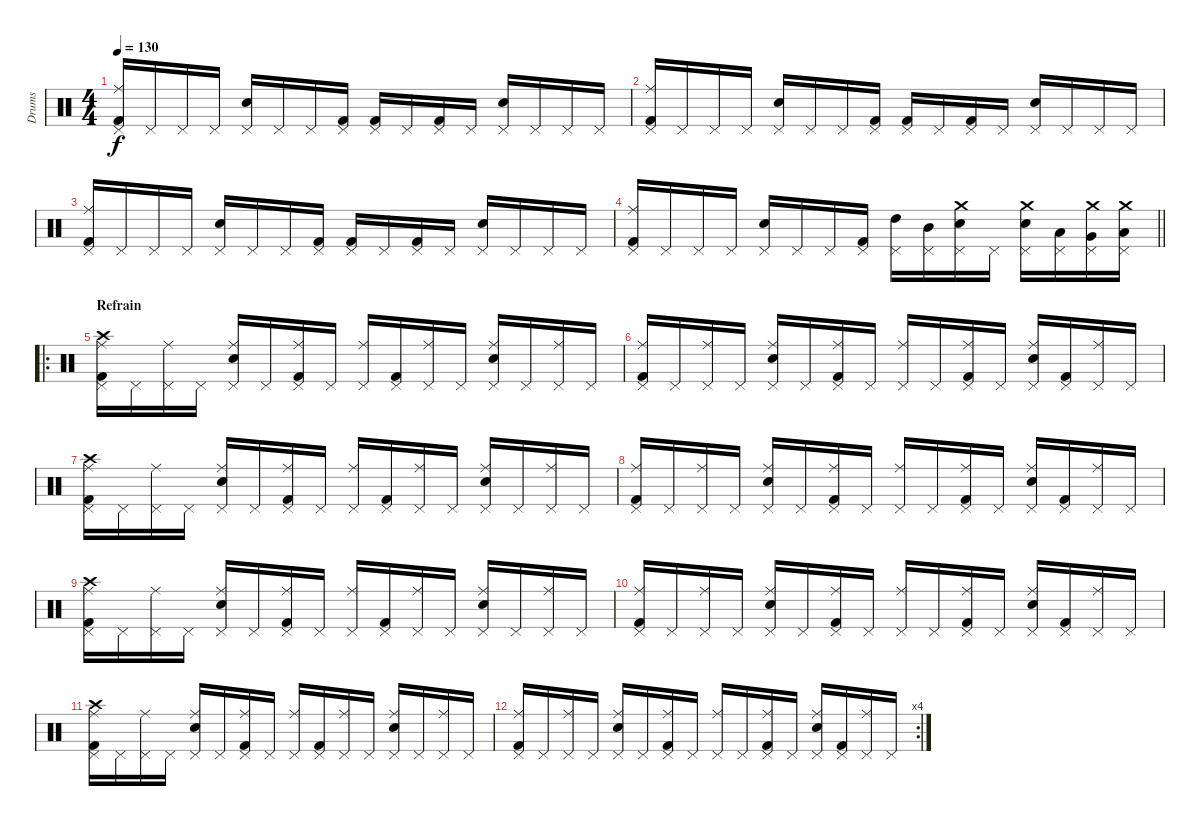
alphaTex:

\track ("Drums" "Drums") {instrument percussion}
\staff {score}
\articulation defaults
\ts (4 4)
\tempo 130
\clef neutral
\ks c
("Ride (middle)" "Pedal Hi-Hat (hit)" "Kick (hit) 2").16{dy f} "Pedal Hi-Hat (hit)".16 "Pedal Hi-Hat (hit)".16 "Pedal Hi-Hat (hit)".16 ("Pedal Hi-Hat (hit)" "Snare (hit) 2").16 "Pedal Hi-Hat (hit)".16 "Pedal Hi-Hat (hit)".16 ("Pedal Hi-Hat (hit)" "Kick (hit) 2").16 ("Pedal Hi-Hat (hit)" "Kick (hit) 2").16 "Pedal Hi-Hat (hit)".16 ("Pedal Hi-Hat (hit)" "Kick (hit) 2").16 "Pedal Hi-Hat (hit)".16 ("Pedal Hi-Hat (hit)" "Snare (hit) 2").16 "Pedal Hi-Hat (hit)".16 "Pedal Hi-Hat (hit)".16 "Pedal Hi-Hat (hit)".16 |
("Ride (middle)" "Pedal Hi-Hat (hit)" "Kick (hit) 2").16 "Pedal Hi-Hat (hit)".16 "Pedal Hi-Hat (hit)".16 "Pedal Hi-Hat (hit)".16 ("Pedal Hi-Hat (hit)" "Snare (hit) 2").16 "Pedal Hi-Hat (hit)".16 "Pedal Hi-Hat (hit)".16 ("Pedal Hi-Hat (hit)" "Kick (hit) 2").16 ("Pedal Hi-Hat (hit)" "Kick (hit) 2").16 "Pedal Hi-Hat (hit)".16 ("Pedal Hi-Hat (hit)" "Kick (hit) 2").16 "Pedal Hi-Hat (hit)".16 ("Pedal Hi-Hat (hit)" "Snare (hit) 2").16 "Pedal Hi-Hat (hit)".16 "Pedal Hi-Hat (hit)".16 "Pedal Hi-Hat (hit)".16 |
("Ride (middle)" "Pedal Hi-Hat (hit)" "Kick (hit) 2").16 "Pedal Hi-Hat (hit)".16 "Pedal Hi-Hat (hit)".16 "Pedal Hi-Hat (hit)".16 ("Pedal Hi-Hat (hit)" "Snare (hit) 2").16 "Pedal Hi-Hat (hit)".16 "Pedal Hi-Hat (hit)".16 ("Pedal Hi-Hat (hit)" "Kick (hit) 2").16 ("Pedal Hi-Hat (hit)" "Kick (hit) 2").16 "Pedal Hi-Hat (hit)".16 ("Pedal Hi-Hat (hit)" "Kick (hit) 2").16 "Pedal Hi-Hat (hit)".16 ("Pedal Hi-Hat (hit)" "Snare (hit) 2").16 "Pedal Hi-Hat (hit)".16 "Pedal Hi-Hat (hit)".16 "Pedal Hi-Hat (hit)".16 |
\barLineRight lightlight
("Ride (middle)" "Pedal Hi-Hat (hit)" "Kick (hit) 2").16 "Pedal Hi-Hat (hit)".16 "Pedal Hi-Hat (hit)".16 "Pedal Hi-Hat (hit)".16 ("Pedal Hi-Hat (hit)" "Snare (hit) 2").16 "Pedal Hi-Hat (hit)".16 "Pedal Hi-Hat (hit)".16 ("Pedal Hi-Hat (hit)" "Kick (hit) 2").16 ("Pedal Hi-Hat (hit)" "High Tom (hit)").16 ("Pedal Hi-Hat (hit)" "Mid Tom (hit)").16 ("Crash medium (hit)" "Pedal Hi-Hat (hit)" "Snare (hit) 2").16 "Pedal Hi-Hat (hit)".16 ("Crash medium (hit)" "Pedal Hi-Hat (hit)" "Snare (hit) 2").16 ("Pedal Hi-Hat (hit)" "Low Tom (hit)").16 ("Crash medium (hit)" "Pedal Hi-Hat (hit)" "Very Low Tom (hit)").16 ("Crash medium (hit)" "Pedal Hi-Hat (hit)" "Low Floor Tom (hit)").16 |
\ro
\section ("" "Refrain")
("Crash high (hit)" "Pedal Hi-Hat (hit)" "Ride (middle)" "Kick (hit) 2").16 "Pedal Hi-Hat (hit)".16 ("Pedal Hi-Hat (hit)" "Ride (middle)").16 "Pedal Hi-Hat (hit)".16 ("Pedal Hi-Hat (hit)" "Ride (middle)" "Electric Snare (hit)").16 "Pedal Hi-Hat (hit)".16 ("Pedal Hi-Hat (hit)" "Ride (middle)" "Kick (hit) 2").16 "Pedal Hi-Hat (hit)".16 ("Pedal Hi-Hat (hit)" "Ride (middle)").16 ("Pedal Hi-Hat (hit)" "Kick (hit) 2").16 ("Pedal Hi-Hat (hit)" "Ride (middle)").16 "Pedal Hi-Hat (hit)".16 ("Pedal Hi-Hat (hit)" "Ride (middle)" "Electric Snare (hit)").16 "Pedal Hi-Hat (hit)".16 ("Pedal Hi-Hat (hit)" "Ride (middle)").16 "Pedal Hi-Hat (hit)".16 |
("Ride (middle)" "Pedal Hi-Hat (hit)" "Kick (hit) 2").16 "Pedal Hi-Hat (hit)".16 ("Ride (middle)" "Pedal Hi-Hat (hit)").16 "Pedal Hi-Hat (hit)".16 ("Ride (middle)" "Pedal Hi-Hat (hit)" "Electric Snare (hit)").16 "Pedal Hi-Hat (hit)".16 ("Ride (middle)" "Pedal Hi-Hat (hit)" "Kick (hit) 2").16 "Pedal Hi-Hat (hit)".16 ("Ride (middle)" "Pedal Hi-Hat (hit)").16 "Pedal Hi-Hat (hit)".16 ("Ride (middle)" "Pedal Hi-Hat (hit)" "Kick (hit) 2").16 "Pedal Hi-Hat (hit)".16 ("Ride (middle)" "Pedal Hi-Hat (hit)" "Electric Snare (hit)").16 ("Pedal Hi-Hat (hit)" "Kick (hit) 2").16 ("Ride (middle)" "Pedal Hi-Hat (hit)").16 "Pedal Hi-Hat (hit)".16 |
("Crash high (hit)" "Pedal Hi-Hat (hit)" "Ride (middle)" "Kick (hit) 2").16 "Pedal Hi-Hat (hit)".16 ("Pedal Hi-Hat (hit)" "Ride (middle)").16 "Pedal Hi-Hat (hit)".16 ("Pedal Hi-Hat (hit)" "Ride (middle)" "Electric Snare (hit)").16 "Pedal Hi-Hat (hit)".16 ("Pedal Hi-Hat (hit)" "Ride (middle)" "Kick (hit) 2").16 "Pedal Hi-Hat (hit)".16 ("Pedal Hi-Hat (hit)" "Ride (middle)").16 ("Pedal Hi-Hat (hit)" "Kick (hit) 2").16 ("Pedal Hi-Hat (hit)" "Ride (middle)").16 "Pedal Hi-Hat (hit)".16 ("Pedal Hi-Hat (hit)" "Ride (middle)" "Electric Snare (hit)").16 "Pedal Hi-Hat (hit)".16 ("Pedal Hi-Hat (hit)" "Ride (middle)").16 "Pedal Hi-Hat (hit)".16 |
("Ride (middle)" "Pedal Hi-Hat (hit)" "Kick (hit) 2").16 "Pedal Hi-Hat (hit)".16 ("Ride (middle)" "Pedal Hi-Hat (hit)").16 "Pedal Hi-Hat (hit)".16 ("Ride (middle)" "Pedal Hi-Hat (hit)" "Electric Snare (hit)").16 "Pedal Hi-Hat (hit)".16 ("Ride (middle)" "Pedal Hi-Hat (hit)" "Kick (hit) 2").16 "Pedal Hi-Hat (hit)".16 ("Ride (middle)" "Pedal Hi-Hat (hit)").16 "Pedal Hi-Hat (hit)".16 ("Ride (middle)" "Pedal Hi-Hat (hit)" "Kick (hit) 2").16 "Pedal Hi-Hat (hit)".16 ("Ride (middle)" "Pedal Hi-Hat (hit)" "Electric Snare (hit)").16 ("Pedal Hi-Hat (hit)" "Kick (hit) 2").16 ("Ride (middle)" "Pedal Hi-Hat (hit)").16 "Pedal Hi-Hat (hit)".16 |
("Crash high (hit)" "Pedal Hi-Hat (hit)" "Ride (middle)" "Kick (hit) 2").16 "Pedal Hi-Hat (hit)".16 ("Pedal Hi-Hat (hit)" "Ride (middle)").16 "Pedal Hi-Hat (hit)".16 ("Pedal Hi-Hat (hit)" "Ride (middle)" "Electric Snare (hit)").16 "Pedal Hi-Hat (hit)".16 ("Pedal Hi-Hat (hit)" "Ride (middle)" "Kick (hit) 2").16 "Pedal Hi-Hat (hit)".16 ("Pedal Hi-Hat (hit)" "Ride (middle)").16 ("Pedal Hi-Hat (hit)" "Kick (hit) 2").16 ("Pedal Hi-Hat (hit)" "Ride (middle)").16 "Pedal Hi-Hat (hit)".16 ("Pedal Hi-Hat (hit)" "Ride (middle)" "Electric Snare (hit)").16 "Pedal Hi-Hat (hit)".16 ("Pedal Hi-Hat (hit)" "Ride (middle)").16 "Pedal Hi-Hat (hit)".16 |
("Ride (middle)" "Pedal Hi-Hat (hit)" "Kick (hit) 2").16 "Pedal Hi-Hat (hit)".16 ("Ride (middle)" "Pedal Hi-Hat (hit)").16 "Pedal Hi-Hat (hit)".16 ("Ride (middle)" "Pedal Hi-Hat (hit)" "Electric Snare (hit)").16 "Pedal Hi-Hat (hit)".16 ("Ride (middle)" "Pedal Hi-Hat (hit)" "Kick (hit) 2").16 "Pedal Hi-Hat (hit)".16 ("Ride (middle)" "Pedal Hi-Hat (hit)").16 "Pedal Hi-Hat (hit)".16 ("Ride (middle)" "Pedal Hi-Hat (hit)" "Kick (hit) 2").16 "Pedal Hi-Hat (hit)".16 ("Ride (middle)" "Pedal Hi-Hat (hit)" "Electric Snare (hit)").16 ("Pedal Hi-Hat (hit)" "Kick (hit) 2").16 ("Ride (middle)" "Pedal Hi-Hat (hit)").16 "Pedal Hi-Hat (hit)".16 |
("Crash high (hit)" "Pedal Hi-Hat (hit)" "Ride (middle)" "Kick (hit) 2").16 "Pedal Hi-Hat (hit)".16 ("Pedal Hi-Hat (hit)" "Ride (middle)").16 "Pedal Hi-Hat (hit)".16 ("Pedal Hi-Hat (hit)" "Ride (middle)" "Electric Snare (hit)").16 "Pedal Hi-Hat (hit)".16 ("Pedal Hi-Hat (hit)" "Ride (middle)" "Kick (hit) 2").16 "Pedal Hi-Hat (hit)".16 ("Pedal Hi-Hat (hit)" "Ride (middle)").16 ("Pedal Hi-Hat (hit)" "Kick (hit) 2").16 ("Pedal Hi-Hat (hit)" "Ride (middle)").16 "Pedal Hi-Hat (hit)".16 ("Pedal Hi-Hat (hit)" "Ride (middle)" "Electric Snare (hit)").16 "Pedal Hi-Hat (hit)".16 ("Pedal Hi-Hat (hit)" "Ride (middle)").16 "Pedal Hi-Hat (hit)".16 |
\rc 4
("Ride (middle)" "Pedal Hi-Hat (hit)" "Kick (hit) 2").16 "Pedal Hi-Hat (hit)".16 ("Ride (middle)" "Pedal Hi-Hat (hit)").16 "Pedal Hi-Hat (hit)".16 ("Ride (middle)" "Pedal Hi-Hat (hit)" "Electric Snare (hit)").16 "Pedal Hi-Hat (hit)".16 ("Ride (middle)" "Pedal Hi-Hat (hit)" "Kick (hit) 2").16 "Pedal Hi-Hat (hit)".16 ("Ride (middle)" "Pedal Hi-Hat (hit)").16 "Pedal Hi-Hat (hit)".16 ("Ride (middle)" "Pedal Hi-Hat (hit)" "Kick (hit) 2").16 "Pedal Hi-Hat (hit)".16 ("Ride (middle)" "Pedal Hi-Hat (hit)" "Electric Snare (hit)").16 ("Pedal Hi-Hat (hit)" "Kick (hit) 2").16 ("Ride (middle)" "Pedal Hi-Hat (hit)").16 "Pedal Hi-Hat (hit)".16
